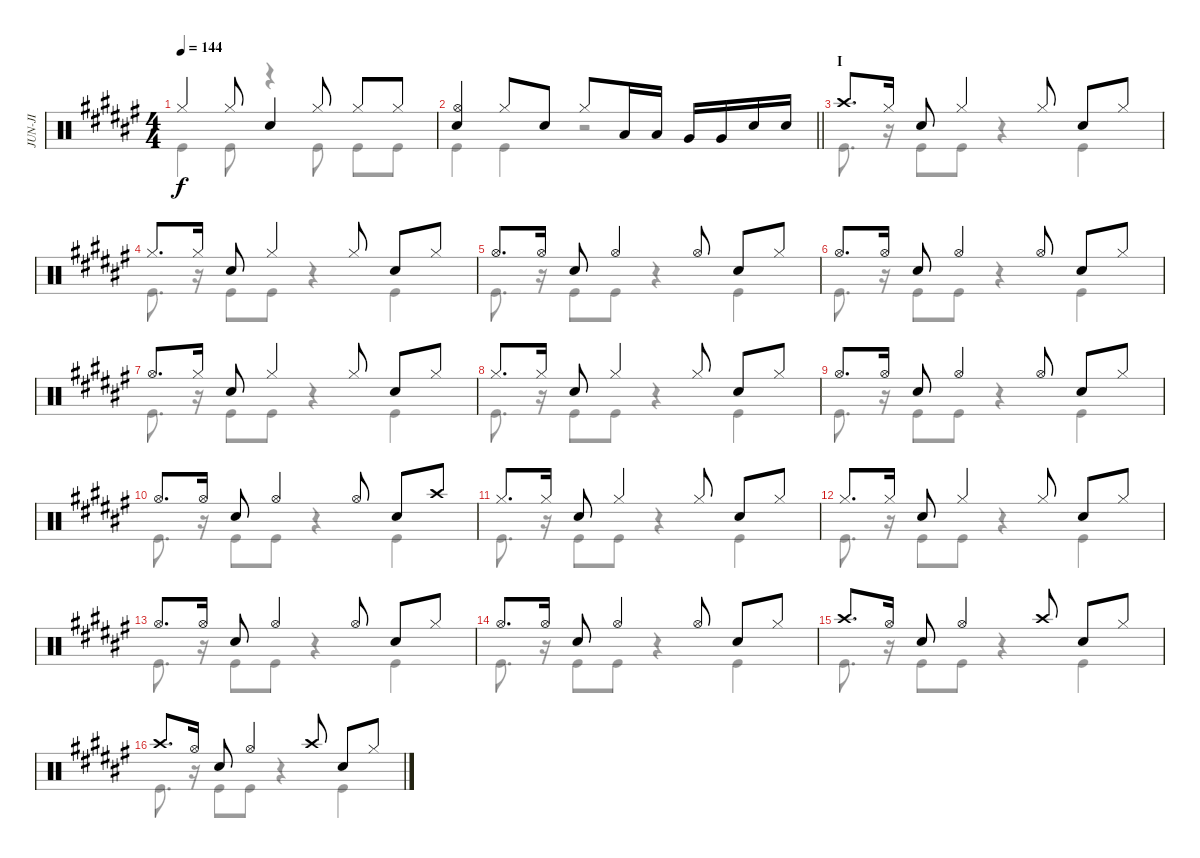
\track ("JUN-JI" "JUN-JI") {instrument percussion}
\staff {score}
\articulation defaults
\voice
\ts (4 4)
\tempo 144
\clef neutral
\ks d#minor "Hi-Hat (closed)".4{dy f} "Hi-Hat (closed)".8 "Snare (hit) 2".4 "Hi-Hat (closed)".8 "Hi-Hat (closed)".8 "Hi-Hat (closed)".8
|
\barLineRight lightlight
("Hi-Hat (open)" "Snare (hit) 2").4 "Hi-Hat (closed)".8 "Snare (hit) 2".8 "Hi-Hat (closed)".8 "Low Tom (hit)".16 "Low Tom (hit)".16 "Very Low Tom (hit)".16 "Very Low Tom (hit)".16 "Snare (hit) 2".16 "Snare (hit) 2".16 |
\section ("" "I")
"Crash high (hit)".8{d} "Hi-Hat (closed)".16 "Snare (hit) 2".8 "Hi-Hat (closed)".4 "Hi-Hat (closed)".8 "Snare (hit) 2".8 "Hi-Hat (closed)".8 |
"Hi-Hat (closed)".8{d} "Hi-Hat (closed)".16 "Snare (hit) 2".8 "Hi-Hat (closed)".4 "Hi-Hat (closed)".8 "Snare (hit) 2".8 "Hi-Hat (closed)".8 |
"Hi-Hat (open)".8{d} "Hi-Hat (open)".16 "Snare (hit) 2".8 "Hi-Hat (open)".4 "Hi-Hat (open)".8 "Snare (hit) 2".8 "Hi-Hat (closed)".8 |
"Hi-Hat (open)".8{d} "Hi-Hat (open)".16 "Snare (hit) 2".8 "Hi-Hat (open)".4 "Hi-Hat (open)".8 "Snare (hit) 2".8 "Hi-Hat (closed)".8 |
"Hi-Hat (open)".8{d} "Hi-Hat (closed)".16 "Snare (hit) 2".8 "Hi-Hat (closed)".4 "Hi-Hat (closed)".8 "Snare (hit) 2".8 "Hi-Hat (closed)".8 |
"Hi-Hat (closed)".8{d} "Hi-Hat (closed)".16 "Snare (hit) 2".8 "Hi-Hat (closed)".4 "Hi-Hat (closed)".8 "Snare (hit) 2".8 "Hi-Hat (closed)".8 |
"Hi-Hat (open)".8{d} "Hi-Hat (open)".16 "Snare (hit) 2".8 "Hi-Hat (open)".4 "Hi-Hat (open)".8 "Snare (hit) 2".8 "Hi-Hat (closed)".8 |
"Hi-Hat (open)".8{d} "Hi-Hat (open)".16 "Snare (hit) 2".8 "Hi-Hat (open)".4 "Hi-Hat (open)".8 "Snare (hit) 2".8 "Crash high (hit)".8 |
"Hi-Hat (closed)".8{d} "Hi-Hat (closed)".16 "Snare (hit) 2".8 "Hi-Hat (closed)".4 "Hi-Hat (closed)".8 "Snare (hit) 2".8 "Hi-Hat (closed)".8 |
"Hi-Hat (closed)".8{d} "Hi-Hat (closed)".16 "Snare (hit) 2".8 "Hi-Hat (closed)".4 "Hi-Hat (closed)".8 "Snare (hit) 2".8 "Hi-Hat (closed)".8 |
"Hi-Hat (open)".8{d} "Hi-Hat (open)".16 "Snare (hit) 2".8 "Hi-Hat (open)".4 "Hi-Hat (open)".8 "Snare (hit) 2".8 "Hi-Hat (closed)".8 |
"Hi-Hat (open)".8{d} "Hi-Hat (open)".16 "Snare (hit) 2".8 "Hi-Hat (open)".4 "Hi-Hat (open)".8 "Snare (hit) 2".8 "Hi-Hat (closed)".8 |
"Crash high (hit)".8{d} "Hi-Hat (open)".16 "Snare (hit) 2".8 "Hi-Hat (open)".4 "Crash high (hit)".8 "Snare (hit) 2".8 "Hi-Hat (closed)".8 |
"Crash high (hit)".8{d} "Hi-Hat (open)".16 "Snare (hit) 2".8 "Hi-Hat (open)".4 "Crash high (hit)".8 "Snare (hit) 2".8 "Hi-Hat (closed)".8
\voice
\clef neutral
\ottava regular
\simile none
\ks d#minor "Kick (hit)".4{dy f} "Kick (hit)".8
r.4 "Kick (hit)".8 "Kick (hit)".8 "Kick (hit)".8 |
\barLineRight lightlight "Kick (hit)".4 "Kick (hit)".4
r.2 |
"Kick (hit)".8{d} r.16 "Kick (hit)".8 "Kick (hit)".8 r.4 "Kick (hit)".4 |
"Kick (hit)".8{d} r.16 "Kick (hit)".8 "Kick (hit)".8 r.4 "Kick (hit)".4 |
"Kick (hit)".8{d} r.16 "Kick (hit)".8 "Kick (hit)".8 r.4 "Kick (hit)".4 |
"Kick (hit)".8{d} r.16 "Kick (hit)".8 "Kick (hit)".8 r.4 "Kick (hit)".4 |
"Kick (hit)".8{d} r.16 "Kick (hit)".8 "Kick (hit)".8 r.4 "Kick (hit)".4 |
"Kick (hit)".8{d} r.16 "Kick (hit)".8 "Kick (hit)".8 r.4 "Kick (hit)".4 |
"Kick (hit)".8{d} r.16 "Kick (hit)".8 "Kick (hit)".8 r.4 "Kick (hit)".4 |
"Kick (hit)".8{d} r.16 "Kick (hit)".8 "Kick (hit)".8 r.4 "Kick (hit)".4 |
"Kick (hit)".8{d} r.16 "Kick (hit)".8 "Kick (hit)".8 r.4 "Kick (hit)".4 |
"Kick (hit)".8{d} r.16 "Kick (hit)".8 "Kick (hit)".8 r.4 "Kick (hit)".4 |
"Kick (hit)".8{d} r.16 "Kick (hit)".8 "Kick (hit)".8 r.4 "Kick (hit)".4 |
"Kick (hit)".8{d} r.16 "Kick (hit)".8 "Kick (hit)".8 r.4 "Kick (hit)".4 |
"Kick (hit)".8{d} r.16 "Kick (hit)".8 "Kick (hit)".8 r.4 "Kick (hit)".4 |
"Kick (hit)".8{d} r.16 "Kick (hit)".8 "Kick (hit)".8 r.4 "Kick (hit)".4
